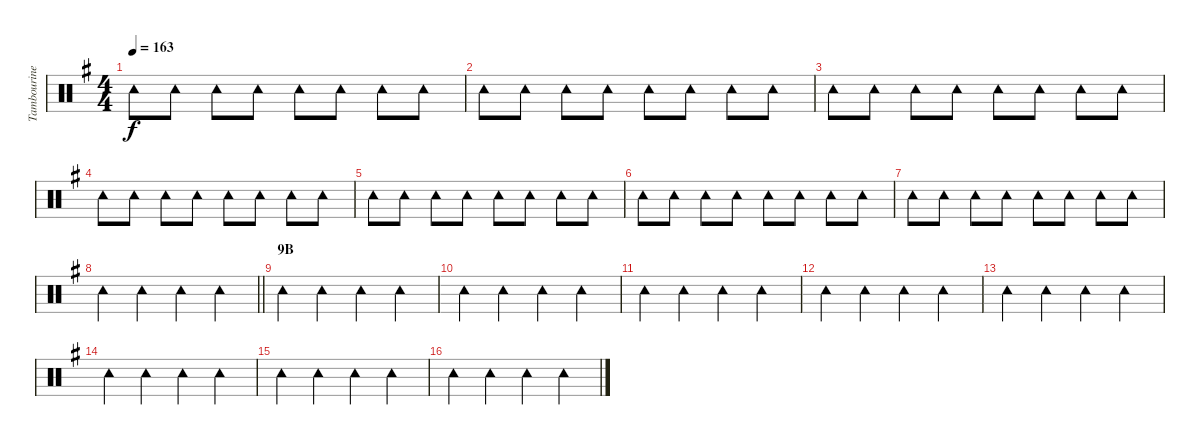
\track ("Tambourine" "Tambourine") {instrument percussion}
\staff {score}
\articulation defaults
\ts (4 4)
\tempo 163
\clef neutral
\ks g "Tambourine (hit)".8{dy f} "Tambourine (hit)".8 "Tambourine (hit)".8 "Tambourine (hit)".8 "Tambourine (hit)".8 "Tambourine (hit)".8 "Tambourine (hit)".8 "Tambourine (hit)".8
|
"Tambourine (hit)".8 "Tambourine (hit)".8 "Tambourine (hit)".8 "Tambourine (hit)".8 "Tambourine (hit)".8 "Tambourine (hit)".8 "Tambourine (hit)".8 "Tambourine (hit)".8 |
"Tambourine (hit)".8 "Tambourine (hit)".8 "Tambourine (hit)".8 "Tambourine (hit)".8 "Tambourine (hit)".8 "Tambourine (hit)".8 "Tambourine (hit)".8 "Tambourine (hit)".8 |
"Tambourine (hit)".8 "Tambourine (hit)".8 "Tambourine (hit)".8 "Tambourine (hit)".8 "Tambourine (hit)".8 "Tambourine (hit)".8 "Tambourine (hit)".8 "Tambourine (hit)".8 |
"Tambourine (hit)".8 "Tambourine (hit)".8 "Tambourine (hit)".8 "Tambourine (hit)".8 "Tambourine (hit)".8 "Tambourine (hit)".8 "Tambourine (hit)".8 "Tambourine (hit)".8 |
"Tambourine (hit)".8 "Tambourine (hit)".8 "Tambourine (hit)".8 "Tambourine (hit)".8 "Tambourine (hit)".8 "Tambourine (hit)".8 "Tambourine (hit)".8 "Tambourine (hit)".8 |
"Tambourine (hit)".8 "Tambourine (hit)".8 "Tambourine (hit)".8 "Tambourine (hit)".8 "Tambourine (hit)".8 "Tambourine (hit)".8 "Tambourine (hit)".8 "Tambourine (hit)".8 |
\barLineRight lightlight "Tambourine (hit)".4 "Tambourine (hit)".4 "Tambourine (hit)".4 "Tambourine (hit)".4
|
\section ("" "9B")
"Tambourine (hit)".4 "Tambourine (hit)".4 "Tambourine (hit)".4 "Tambourine (hit)".4 |
"Tambourine (hit)".4 "Tambourine (hit)".4 "Tambourine (hit)".4 "Tambourine (hit)".4 |
"Tambourine (hit)".4 "Tambourine (hit)".4 "Tambourine (hit)".4 "Tambourine (hit)".4 |
"Tambourine (hit)".4 "Tambourine (hit)".4 "Tambourine (hit)".4 "Tambourine (hit)".4 |
"Tambourine (hit)".4 "Tambourine (hit)".4 "Tambourine (hit)".4 "Tambourine (hit)".4 |
"Tambourine (hit)".4 "Tambourine (hit)".4 "Tambourine (hit)".4 "Tambourine (hit)".4 |
"Tambourine (hit)".4 "Tambourine (hit)".4 "Tambourine (hit)".4 "Tambourine (hit)".4 |
"Tambourine (hit)".4 "Tambourine (hit)".4 "Tambourine (hit)".4 "Tambourine (hit)".4
